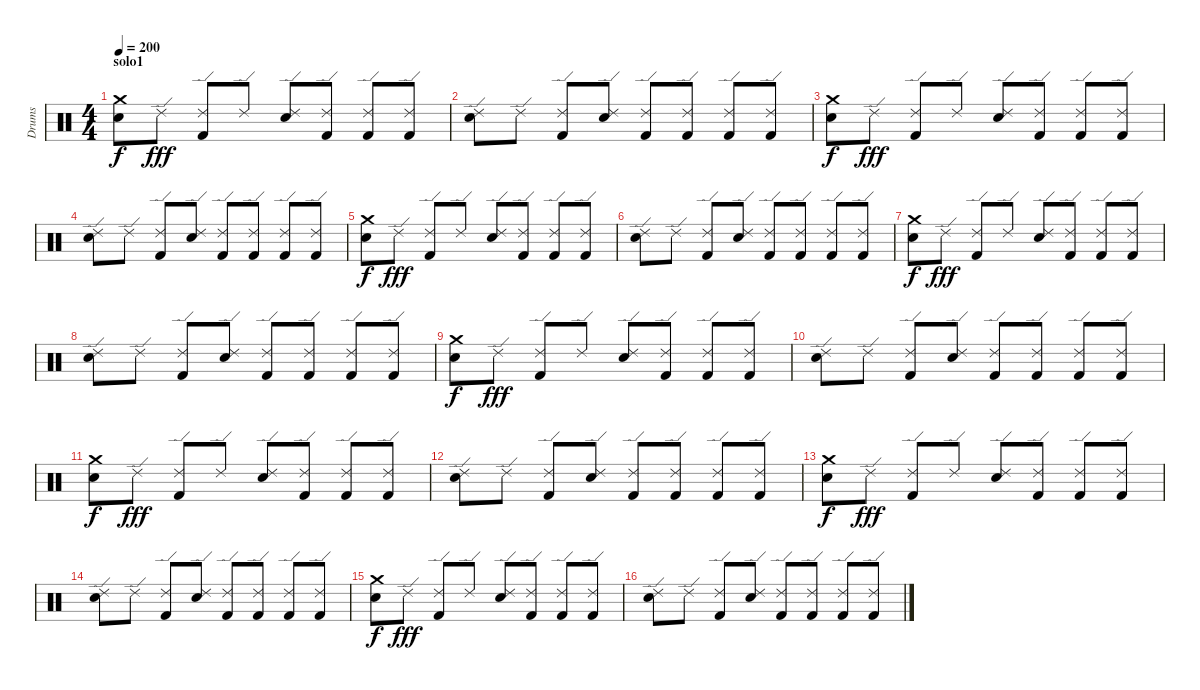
\track ("Drums" "Drums") {instrument percussion}
\staff {score}
\articulation defaults
\ts (4 4)
\section ("" "solo1")
\tempo 200
\clef neutral
\ks c
("Crash medium (hit)" "Electric Snare (hit)").8{dy f} "Ride (edge) 2".8{dy fff} ("Ride (edge) 2" "Kick (hit) 2").8 "Ride (edge) 2".8 ("Ride (edge) 2" "Electric Snare (hit)").8 ("Ride (edge) 2" "Kick (hit) 2").8 ("Ride (edge) 2" "Kick (hit) 2").8 ("Ride (edge) 2" "Kick (hit) 2").8 |
("Ride (edge) 2" "Electric Snare (hit)").8 "Ride (edge) 2".8 ("Ride (edge) 2" "Kick (hit) 2").8 ("Ride (edge) 2" "Electric Snare (hit)").8 ("Ride (edge) 2" "Kick (hit) 2").8 ("Ride (edge) 2" "Kick (hit) 2").8 ("Ride (edge) 2" "Kick (hit) 2").8 ("Ride (edge) 2" "Kick (hit) 2").8 |
("Crash medium (hit)" "Electric Snare (hit)").8{dy f} "Ride (edge) 2".8{dy fff} ("Ride (edge) 2" "Kick (hit) 2").8 "Ride (edge) 2".8 ("Ride (edge) 2" "Electric Snare (hit)").8 ("Ride (edge) 2" "Kick (hit) 2").8 ("Ride (edge) 2" "Kick (hit) 2").8 ("Ride (edge) 2" "Kick (hit) 2").8 |
("Ride (edge) 2" "Electric Snare (hit)").8 "Ride (edge) 2".8 ("Ride (edge) 2" "Kick (hit) 2").8 ("Ride (edge) 2" "Electric Snare (hit)").8 ("Ride (edge) 2" "Kick (hit) 2").8 ("Ride (edge) 2" "Kick (hit) 2").8 ("Ride (edge) 2" "Kick (hit) 2").8 ("Ride (edge) 2" "Kick (hit) 2").8 |
("Crash medium (hit)" "Electric Snare (hit)").8{dy f} "Ride (edge) 2".8{dy fff} ("Ride (edge) 2" "Kick (hit) 2").8 "Ride (edge) 2".8 ("Ride (edge) 2" "Electric Snare (hit)").8 ("Ride (edge) 2" "Kick (hit) 2").8 ("Ride (edge) 2" "Kick (hit) 2").8 ("Ride (edge) 2" "Kick (hit) 2").8 |
("Ride (edge) 2" "Electric Snare (hit)").8 "Ride (edge) 2".8 ("Ride (edge) 2" "Kick (hit) 2").8 ("Ride (edge) 2" "Electric Snare (hit)").8 ("Ride (edge) 2" "Kick (hit) 2").8 ("Ride (edge) 2" "Kick (hit) 2").8 ("Ride (edge) 2" "Kick (hit) 2").8 ("Ride (edge) 2" "Kick (hit) 2").8 |
("Crash medium (hit)" "Electric Snare (hit)").8{dy f} "Ride (edge) 2".8{dy fff} ("Ride (edge) 2" "Kick (hit) 2").8 "Ride (edge) 2".8 ("Ride (edge) 2" "Electric Snare (hit)").8 ("Ride (edge) 2" "Kick (hit) 2").8 ("Ride (edge) 2" "Kick (hit) 2").8 ("Ride (edge) 2" "Kick (hit) 2").8 |
("Ride (edge) 2" "Electric Snare (hit)").8 "Ride (edge) 2".8 ("Ride (edge) 2" "Kick (hit) 2").8 ("Ride (edge) 2" "Electric Snare (hit)").8 ("Ride (edge) 2" "Kick (hit) 2").8 ("Ride (edge) 2" "Kick (hit) 2").8 ("Ride (edge) 2" "Kick (hit) 2").8 ("Ride (edge) 2" "Kick (hit) 2").8 |
("Crash medium (hit)" "Electric Snare (hit)").8{dy f} "Ride (edge) 2".8{dy fff} ("Ride (edge) 2" "Kick (hit) 2").8 "Ride (edge) 2".8 ("Ride (edge) 2" "Electric Snare (hit)").8 ("Ride (edge) 2" "Kick (hit) 2").8 ("Ride (edge) 2" "Kick (hit) 2").8 ("Ride (edge) 2" "Kick (hit) 2").8 |
("Ride (edge) 2" "Electric Snare (hit)").8 "Ride (edge) 2".8 ("Ride (edge) 2" "Kick (hit) 2").8 ("Ride (edge) 2" "Electric Snare (hit)").8 ("Ride (edge) 2" "Kick (hit) 2").8 ("Ride (edge) 2" "Kick (hit) 2").8 ("Ride (edge) 2" "Kick (hit) 2").8 ("Ride (edge) 2" "Kick (hit) 2").8 |
("Crash medium (hit)" "Electric Snare (hit)").8{dy f} "Ride (edge) 2".8{dy fff} ("Ride (edge) 2" "Kick (hit) 2").8 "Ride (edge) 2".8 ("Ride (edge) 2" "Electric Snare (hit)").8 ("Ride (edge) 2" "Kick (hit) 2").8 ("Ride (edge) 2" "Kick (hit) 2").8 ("Ride (edge) 2" "Kick (hit) 2").8 |
("Ride (edge) 2" "Electric Snare (hit)").8 "Ride (edge) 2".8 ("Ride (edge) 2" "Kick (hit) 2").8 ("Ride (edge) 2" "Electric Snare (hit)").8 ("Ride (edge) 2" "Kick (hit) 2").8 ("Ride (edge) 2" "Kick (hit) 2").8 ("Ride (edge) 2" "Kick (hit) 2").8 ("Ride (edge) 2" "Kick (hit) 2").8 |
("Crash medium (hit)" "Electric Snare (hit)").8{dy f} "Ride (edge) 2".8{dy fff} ("Ride (edge) 2" "Kick (hit) 2").8 "Ride (edge) 2".8 ("Ride (edge) 2" "Electric Snare (hit)").8 ("Ride (edge) 2" "Kick (hit) 2").8 ("Ride (edge) 2" "Kick (hit) 2").8 ("Ride (edge) 2" "Kick (hit) 2").8 |
("Ride (edge) 2" "Electric Snare (hit)").8 "Ride (edge) 2".8 ("Ride (edge) 2" "Kick (hit) 2").8 ("Ride (edge) 2" "Electric Snare (hit)").8 ("Ride (edge) 2" "Kick (hit) 2").8 ("Ride (edge) 2" "Kick (hit) 2").8 ("Ride (edge) 2" "Kick (hit) 2").8 ("Ride (edge) 2" "Kick (hit) 2").8 |
("Crash medium (hit)" "Electric Snare (hit)").8{dy f} "Ride (edge) 2".8{dy fff} ("Ride (edge) 2" "Kick (hit) 2").8 "Ride (edge) 2".8 ("Ride (edge) 2" "Electric Snare (hit)").8 ("Ride (edge) 2" "Kick (hit) 2").8 ("Ride (edge) 2" "Kick (hit) 2").8 ("Ride (edge) 2" "Kick (hit) 2").8 |
("Ride (edge) 2" "Electric Snare (hit)").8 "Ride (edge) 2".8 ("Ride (edge) 2" "Kick (hit) 2").8 ("Ride (edge) 2" "Electric Snare (hit)").8 ("Ride (edge) 2" "Kick (hit) 2").8 ("Ride (edge) 2" "Kick (hit) 2").8 ("Ride (edge) 2" "Kick (hit) 2").8 ("Ride (edge) 2" "Kick (hit) 2").8
